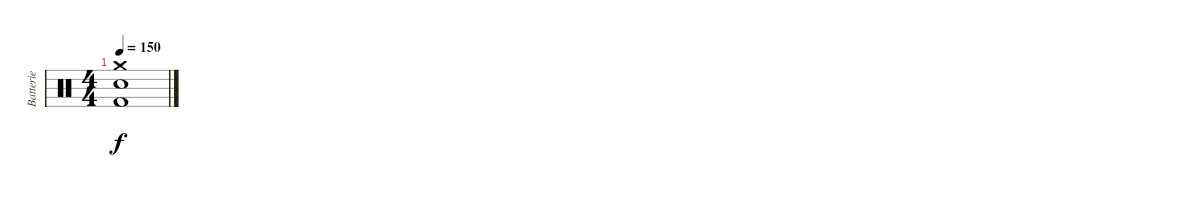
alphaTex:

\track ("Batterie" "Batterie") {instrument percussion}
\staff {score}
\articulation defaults
\ts (4 4)
\tempo 150
\clef neutral
\ks c
("Crash medium (hit)" "Snare (hit) 2" "Kick (hit) 2").1{dy f}
